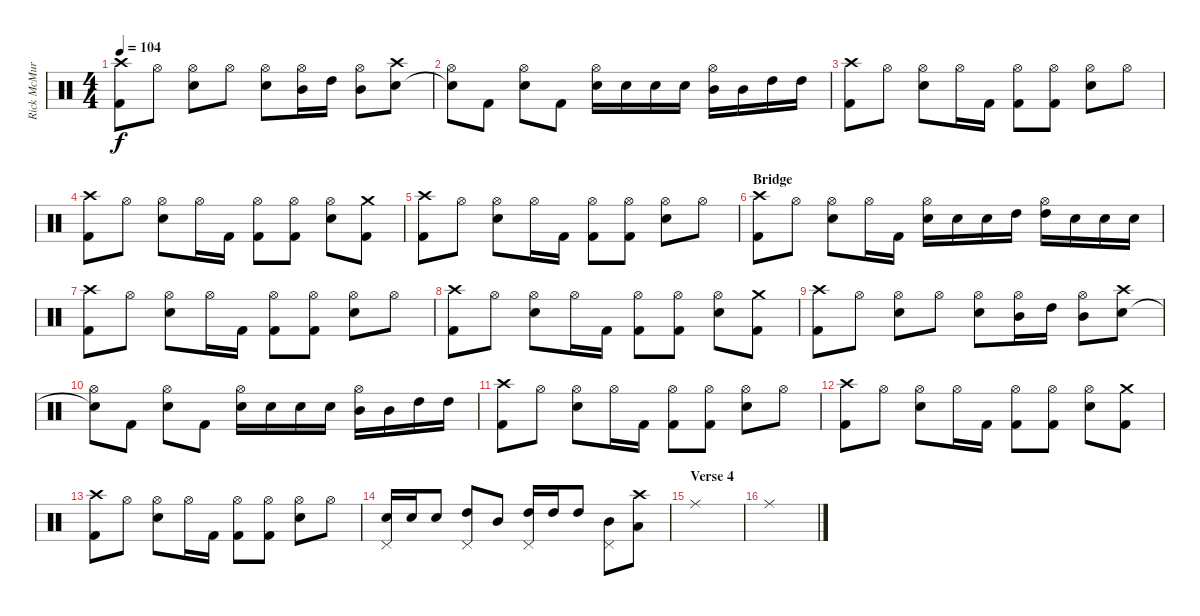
\track ("Rick McMurray" "Rick McMur") {instrument percussion}
\staff {score}
\articulation defaults
\ts (4 4)
\tempo 104
\clef neutral
\ks c
("Crash high (hit)" "Kick (hit) 2").8{dy f} "Hi-Hat (open)".8 ("Hi-Hat (open)" "Snare (hit) 2").8 "Hi-Hat (open)".8 ("Hi-Hat (open)" "Snare (hit) 2").8 ("Hi-Hat (open)" "Mid Tom (hit)").16 "High Tom (hit)".16 ("Hi-Hat (open)" "Mid Tom (hit)").8 ("Crash high (hit)" "Snare (hit) 2").8 |
("Hi-Hat (open)" "Snare (hit)"{t}).8 "Kick (hit) 2".8 ("Hi-Hat (open)" "Snare (hit) 2").8 "Kick (hit) 2".8 ("Snare (hit) 2" "Hi-Hat (open)").16 "Snare (hit) 2".16 "Snare (hit) 2".16 "Snare (hit) 2".16 ("Mid Tom (hit)" "Hi-Hat (open)").16 "Mid Tom (hit)".16 "High Tom (hit)".16 "High Tom (hit)".16 |
("Crash high (hit)" "Kick (hit) 2").8 "Hi-Hat (open)".8 ("Hi-Hat (open)" "Snare (hit) 2").8 "Hi-Hat (open)".16 "Kick (hit) 2".16 ("Hi-Hat (open)" "Kick (hit) 2").8 ("Hi-Hat (open)" "Kick (hit) 2").8 ("Hi-Hat (open)" "Snare (hit) 2").8 "Hi-Hat (open)".8 |
("Crash high (hit)" "Kick (hit) 2").8 "Hi-Hat (open)".8 ("Hi-Hat (open)" "Snare (hit) 2").8 "Hi-Hat (open)".16 "Kick (hit) 2".16 ("Hi-Hat (open)" "Kick (hit) 2").8 ("Hi-Hat (open)" "Kick (hit) 2").8 ("Hi-Hat (open)" "Snare (hit) 2").8 ("Crash medium (hit)" "Kick (hit) 2").8 |
("Crash high (hit)" "Kick (hit) 2").8 "Hi-Hat (open)".8 ("Hi-Hat (open)" "Snare (hit) 2").8 "Hi-Hat (open)".16 "Kick (hit) 2".16 ("Hi-Hat (open)" "Kick (hit) 2").8 ("Hi-Hat (open)" "Kick (hit) 2").8 ("Hi-Hat (open)" "Snare (hit) 2").8 "Hi-Hat (open)".8 |
\section ("" "Bridge")
("Crash high (hit)" "Kick (hit) 2").8 "Hi-Hat (open)".8 ("Hi-Hat (open)" "Snare (hit) 2").8 "Hi-Hat (open)".16 "Kick (hit) 2".16 ("Snare (hit) 2" "Hi-Hat (open)").16 "Snare (hit) 2".16 "Snare (hit) 2".16 "High Tom (hit)".16 ("High Tom (hit)" "Hi-Hat (open)").16 "Snare (hit) 2".16 "Snare (hit) 2".16 "Snare (hit) 2".16 |
("Crash high (hit)" "Kick (hit) 2").8 "Hi-Hat (open)".8 ("Hi-Hat (open)" "Snare (hit) 2").8 "Hi-Hat (open)".16 "Kick (hit) 2".16 ("Hi-Hat (open)" "Kick (hit) 2").8 ("Hi-Hat (open)" "Kick (hit) 2").8 ("Hi-Hat (open)" "Snare (hit) 2").8 "Hi-Hat (open)".8 |
("Crash high (hit)" "Kick (hit) 2").8 "Hi-Hat (open)".8 ("Hi-Hat (open)" "Snare (hit) 2").8 "Hi-Hat (open)".16 "Kick (hit) 2".16 ("Hi-Hat (open)" "Kick (hit) 2").8 ("Hi-Hat (open)" "Kick (hit) 2").8 ("Hi-Hat (open)" "Snare (hit) 2").8 ("Crash medium (hit)" "Kick (hit) 2").8 |
("Crash high (hit)" "Kick (hit) 2").8 "Hi-Hat (open)".8 ("Hi-Hat (open)" "Snare (hit) 2").8 "Hi-Hat (open)".8 ("Hi-Hat (open)" "Snare (hit) 2").8 ("Hi-Hat (open)" "Mid Tom (hit)").16 "High Tom (hit)".16 ("Hi-Hat (open)" "Mid Tom (hit)").8 ("Crash high (hit)" "Snare (hit) 2").8 |
("Hi-Hat (open)" "Snare (hit)"{t}).8 "Kick (hit) 2".8 ("Hi-Hat (open)" "Snare (hit) 2").8 "Kick (hit) 2".8 ("Snare (hit) 2" "Hi-Hat (open)").16 "Snare (hit) 2".16 "Snare (hit) 2".16 "Snare (hit) 2".16 ("Mid Tom (hit)" "Hi-Hat (open)").16 "Mid Tom (hit)".16 "High Tom (hit)".16 "High Tom (hit)".16 |
("Crash high (hit)" "Kick (hit) 2").8 "Hi-Hat (open)".8 ("Hi-Hat (open)" "Snare (hit) 2").8 "Hi-Hat (open)".16 "Kick (hit) 2".16 ("Hi-Hat (open)" "Kick (hit) 2").8 ("Hi-Hat (open)" "Kick (hit) 2").8 ("Hi-Hat (open)" "Snare (hit) 2").8 "Hi-Hat (open)".8 |
("Crash high (hit)" "Kick (hit) 2").8 "Hi-Hat (open)".8 ("Hi-Hat (open)" "Snare (hit) 2").8 "Hi-Hat (open)".16 "Kick (hit) 2".16 ("Hi-Hat (open)" "Kick (hit) 2").8 ("Hi-Hat (open)" "Kick (hit) 2").8 ("Hi-Hat (open)" "Snare (hit) 2").8 ("Crash medium (hit)" "Kick (hit) 2").8 |
("Crash high (hit)" "Kick (hit) 2").8 "Hi-Hat (open)".8 ("Hi-Hat (open)" "Snare (hit) 2").8 "Hi-Hat (open)".16 "Kick (hit) 2".16 ("Hi-Hat (open)" "Kick (hit) 2").8 ("Hi-Hat (open)" "Kick (hit) 2").8 ("Hi-Hat (open)" "Snare (hit) 2").8 "Hi-Hat (open)".8 |
("Snare (hit) 2" "Pedal Hi-Hat (hit)").16 "Snare (hit) 2".16 "Snare (hit) 2".8 ("High Tom (hit)" "Pedal Hi-Hat (hit)").8 "Mid Tom (hit)".8 ("High Tom (hit)" "Pedal Hi-Hat (hit)").16 "High Tom (hit)".16 "High Tom (hit)".8 ("Mid Tom (hit)" "Pedal Hi-Hat (hit)").8 ("Crash high (hit)" "Low Tom (hit)").8 |
\section ("" "Verse 4")
"Ride (middle)".1 |
"Ride (middle)".1
